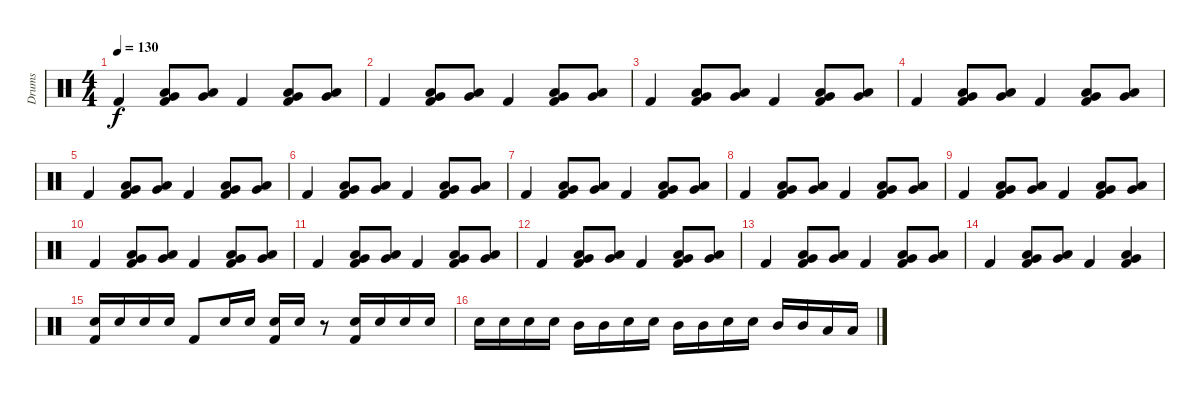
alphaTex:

\track ("Drums" "Drums") {instrument percussion}
\staff {score}
\articulation defaults
\ts (4 4)
\tempo 130
\clef neutral
\ks c "Kick (hit) 2".4{dy f}
("Low Tom (hit)" "Very Low Tom (hit)" "Kick (hit) 2").8 ("Low Tom (hit)" "Very Low Tom (hit)").8 "Kick (hit) 2".4 ("Low Tom (hit)" "Very Low Tom (hit)" "Kick (hit) 2").8 ("Low Tom (hit)" "Very Low Tom (hit)").8 |
"Kick (hit) 2".4 ("Low Tom (hit)" "Very Low Tom (hit)" "Kick (hit) 2").8 ("Low Tom (hit)" "Very Low Tom (hit)").8 "Kick (hit) 2".4 ("Low Tom (hit)" "Very Low Tom (hit)" "Kick (hit) 2").8 ("Low Tom (hit)" "Very Low Tom (hit)").8 |
"Kick (hit) 2".4 ("Low Tom (hit)" "Very Low Tom (hit)" "Kick (hit) 2").8 ("Low Tom (hit)" "Very Low Tom (hit)").8 "Kick (hit) 2".4 ("Low Tom (hit)" "Very Low Tom (hit)" "Kick (hit) 2").8 ("Low Tom (hit)" "Very Low Tom (hit)").8 |
"Kick (hit) 2".4 ("Low Tom (hit)" "Very Low Tom (hit)" "Kick (hit) 2").8 ("Low Tom (hit)" "Very Low Tom (hit)").8 "Kick (hit) 2".4 ("Low Tom (hit)" "Very Low Tom (hit)" "Kick (hit) 2").8 ("Low Tom (hit)" "Very Low Tom (hit)").8 |
"Kick (hit) 2".4 ("Low Tom (hit)" "Very Low Tom (hit)" "Kick (hit) 2").8 ("Low Tom (hit)" "Very Low Tom (hit)").8 "Kick (hit) 2".4 ("Low Tom (hit)" "Very Low Tom (hit)" "Kick (hit) 2").8 ("Low Tom (hit)" "Very Low Tom (hit)").8 |
"Kick (hit) 2".4 ("Low Tom (hit)" "Very Low Tom (hit)" "Kick (hit) 2").8 ("Low Tom (hit)" "Very Low Tom (hit)").8 "Kick (hit) 2".4 ("Low Tom (hit)" "Very Low Tom (hit)" "Kick (hit) 2").8 ("Low Tom (hit)" "Very Low Tom (hit)").8 |
"Kick (hit) 2".4 ("Low Tom (hit)" "Very Low Tom (hit)" "Kick (hit) 2").8 ("Low Tom (hit)" "Very Low Tom (hit)").8 "Kick (hit) 2".4 ("Low Tom (hit)" "Very Low Tom (hit)" "Kick (hit) 2").8 ("Low Tom (hit)" "Very Low Tom (hit)").8 |
"Kick (hit) 2".4 ("Low Tom (hit)" "Very Low Tom (hit)" "Kick (hit) 2").8 ("Low Tom (hit)" "Very Low Tom (hit)").8 "Kick (hit) 2".4 ("Low Tom (hit)" "Very Low Tom (hit)" "Kick (hit) 2").8 ("Low Tom (hit)" "Very Low Tom (hit)").8 |
"Kick (hit) 2".4 ("Low Tom (hit)" "Very Low Tom (hit)" "Kick (hit) 2").8 ("Low Tom (hit)" "Very Low Tom (hit)").8 "Kick (hit) 2".4 ("Low Tom (hit)" "Very Low Tom (hit)" "Kick (hit) 2").8 ("Low Tom (hit)" "Very Low Tom (hit)").8 |
"Kick (hit) 2".4 ("Low Tom (hit)" "Very Low Tom (hit)" "Kick (hit) 2").8 ("Low Tom (hit)" "Very Low Tom (hit)").8 "Kick (hit) 2".4 ("Low Tom (hit)" "Very Low Tom (hit)" "Kick (hit) 2").8 ("Low Tom (hit)" "Very Low Tom (hit)").8 |
"Kick (hit) 2".4 ("Low Tom (hit)" "Very Low Tom (hit)" "Kick (hit) 2").8 ("Low Tom (hit)" "Very Low Tom (hit)").8 "Kick (hit) 2".4 ("Low Tom (hit)" "Very Low Tom (hit)" "Kick (hit) 2").8 ("Low Tom (hit)" "Very Low Tom (hit)").8 |
"Kick (hit) 2".4 ("Low Tom (hit)" "Very Low Tom (hit)" "Kick (hit) 2").8 ("Low Tom (hit)" "Very Low Tom (hit)").8 "Kick (hit) 2".4 ("Low Tom (hit)" "Very Low Tom (hit)" "Kick (hit) 2").8 ("Low Tom (hit)" "Very Low Tom (hit)").8 |
"Kick (hit) 2".4 ("Low Tom (hit)" "Very Low Tom (hit)" "Kick (hit) 2").8 ("Low Tom (hit)" "Very Low Tom (hit)").8 "Kick (hit) 2".4 ("Low Tom (hit)" "Very Low Tom (hit)" "Kick (hit) 2").8 ("Low Tom (hit)" "Very Low Tom (hit)").8 |
"Kick (hit) 2".4 ("Low Tom (hit)" "Very Low Tom (hit)" "Kick (hit) 2").8 ("Low Tom (hit)" "Very Low Tom (hit)").8 "Kick (hit) 2".4 ("Low Tom (hit)" "Very Low Tom (hit)" "Kick (hit) 2").4 |
("Electric Snare (hit)" "Kick (hit) 2").16 "Electric Snare (hit)".16 "Electric Snare (hit)".16 "Electric Snare (hit)".16 "Kick (hit) 2".8 "Electric Snare (hit)".16 "Electric Snare (hit)".16 ("Electric Snare (hit)" "Kick (hit) 2").16 "Electric Snare (hit)".16 r.8 ("Electric Snare (hit)" "Kick (hit) 2").16 "Electric Snare (hit)".16 "Electric Snare (hit)".16 "Electric Snare (hit)".16 |
"Electric Snare (hit)".16 "Electric Snare (hit)".16 "Electric Snare (hit)".16 "Electric Snare (hit)".16 "Mid Tom (hit)".16 "Mid Tom (hit)".16 "Electric Snare (hit)".16 "Electric Snare (hit)".16 "Mid Tom (hit)".16 "Mid Tom (hit)".16 "Electric Snare (hit)".16 "Electric Snare (hit)".16 "Mid Tom (hit)".16 "Mid Tom (hit)".16 "Low Tom (hit)".16 "Low Tom (hit)".16
